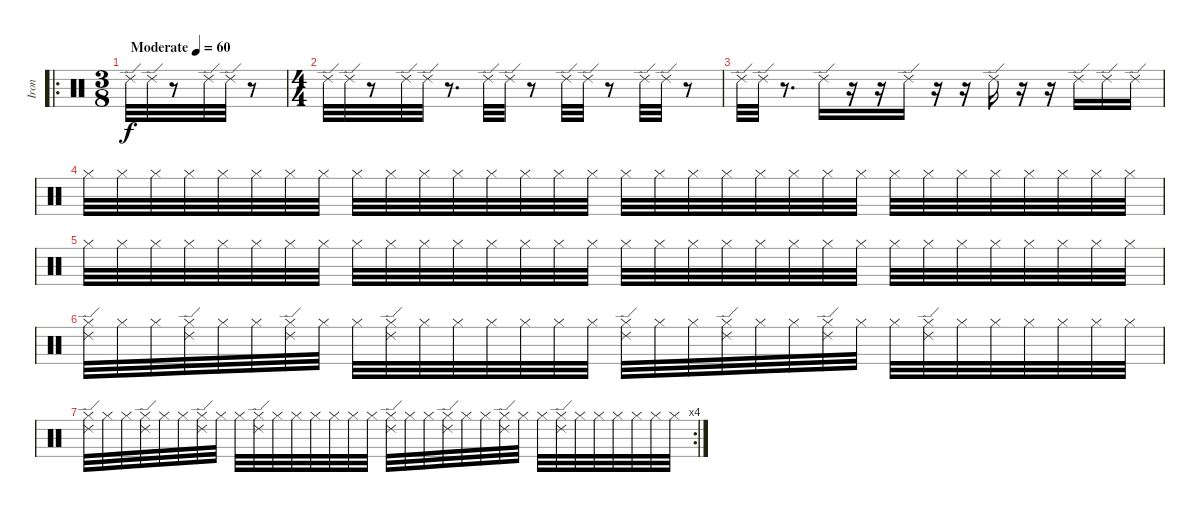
\track ("Iron" "Iron") {instrument percussion}
\staff
\articulation defaults
\ro
\ts (3 8)
\tempo (60 "Moderate")
\clef neutral
\ks c "Ride (edge) 2".32{dy f} "Ride (edge) 2".32
r.8 "Ride (edge) 2".32 "Ride (edge) 2".32 r.8 |
\ts (4 4)
"Ride (edge) 2".32 "Ride (edge) 2".32 r.8 "Ride (edge) 2".32 "Ride (edge) 2".32 r.8{d} "Ride (edge) 2".32 "Ride (edge) 2".32 r.8 "Ride (edge) 2".32 "Ride (edge) 2".32 r.8 "Ride (edge) 2".32 "Ride (edge) 2".32 r.8 |
"Ride (edge) 2".32 "Ride (edge) 2".32 r.8{d} "Ride (edge) 2".16 r.16 r.16 "Ride (edge) 2".16 r.16 r.16 "Ride (edge) 2".16 r.16 r.16 "Ride (edge) 2".16 "Ride (edge) 2".16 "Ride (edge) 2".16 |
"Hi-Hat (closed)".32 "Hi-Hat (closed)".32 "Hi-Hat (closed)".32 "Hi-Hat (closed)".32 "Hi-Hat (closed)".32 "Hi-Hat (closed)".32 "Hi-Hat (closed)".32 "Hi-Hat (closed)".32 "Hi-Hat (closed)".32 "Hi-Hat (closed)".32 "Hi-Hat (closed)".32 "Hi-Hat (closed)".32 "Hi-Hat (closed)".32 "Hi-Hat (closed)".32 "Hi-Hat (closed)".32 "Hi-Hat (closed)".32 "Hi-Hat (closed)".32 "Hi-Hat (closed)".32 "Hi-Hat (closed)".32 "Hi-Hat (closed)".32 "Hi-Hat (closed)".32 "Hi-Hat (closed)".32 "Hi-Hat (closed)".32 "Hi-Hat (closed)".32 "Hi-Hat (closed)".32 "Hi-Hat (closed)".32 "Hi-Hat (closed)".32 "Hi-Hat (closed)".32 "Hi-Hat (closed)".32 "Hi-Hat (closed)".32 "Hi-Hat (closed)".32 "Hi-Hat (closed)".32 |
"Hi-Hat (closed)".32 "Hi-Hat (closed)".32 "Hi-Hat (closed)".32 "Hi-Hat (closed)".32 "Hi-Hat (closed)".32 "Hi-Hat (closed)".32 "Hi-Hat (closed)".32 "Hi-Hat (closed)".32 "Hi-Hat (closed)".32 "Hi-Hat (closed)".32 "Hi-Hat (closed)".32 "Hi-Hat (closed)".32 "Hi-Hat (closed)".32 "Hi-Hat (closed)".32 "Hi-Hat (closed)".32 "Hi-Hat (closed)".32 "Hi-Hat (closed)".32 "Hi-Hat (closed)".32 "Hi-Hat (closed)".32 "Hi-Hat (closed)".32 "Hi-Hat (closed)".32 "Hi-Hat (closed)".32 "Hi-Hat (closed)".32 "Hi-Hat (closed)".32 "Hi-Hat (closed)".32 "Hi-Hat (closed)".32 "Hi-Hat (closed)".32 "Hi-Hat (closed)".32 "Hi-Hat (closed)".32 "Hi-Hat (closed)".32 "Hi-Hat (closed)".32 "Hi-Hat (closed)".32 |
("Ride (edge) 2" "Hi-Hat (closed)").32 "Hi-Hat (closed)".32 "Hi-Hat (closed)".32 ("Ride (edge) 2" "Hi-Hat (closed)").32 "Hi-Hat (closed)".32 "Hi-Hat (closed)".32 ("Ride (edge) 2" "Hi-Hat (closed)").32 "Hi-Hat (closed)".32 "Hi-Hat (closed)".32 ("Ride (edge) 2" "Hi-Hat (closed)").32 "Hi-Hat (closed)".32 "Hi-Hat (closed)".32 "Hi-Hat (closed)".32 "Hi-Hat (closed)".32 "Hi-Hat (closed)".32 "Hi-Hat (closed)".32 ("Ride (edge) 2" "Hi-Hat (closed)").32 "Hi-Hat (closed)".32 "Hi-Hat (closed)".32 ("Ride (edge) 2" "Hi-Hat (closed)").32 "Hi-Hat (closed)".32 "Hi-Hat (closed)".32 ("Ride (edge) 2" "Hi-Hat (closed)").32 "Hi-Hat (closed)".32 "Hi-Hat (closed)".32 ("Ride (edge) 2" "Hi-Hat (closed)").32 "Hi-Hat (closed)".32 "Hi-Hat (closed)".32 "Hi-Hat (closed)".32 "Hi-Hat (closed)".32 "Hi-Hat (closed)".32 "Hi-Hat (closed)".32 |
\rc 4
("Ride (edge) 2" "Hi-Hat (closed)").32 "Hi-Hat (closed)".32 "Hi-Hat (closed)".32 ("Ride (edge) 2" "Hi-Hat (closed)").32 "Hi-Hat (closed)".32 "Hi-Hat (closed)".32 ("Ride (edge) 2" "Hi-Hat (closed)").32 "Hi-Hat (closed)".32 "Hi-Hat (closed)".32 ("Ride (edge) 2" "Hi-Hat (closed)").32 "Hi-Hat (closed)".32 "Hi-Hat (closed)".32 "Hi-Hat (closed)".32 "Hi-Hat (closed)".32 "Hi-Hat (closed)".32 "Hi-Hat (closed)".32 ("Ride (edge) 2" "Hi-Hat (closed)").32 "Hi-Hat (closed)".32 "Hi-Hat (closed)".32 ("Ride (edge) 2" "Hi-Hat (closed)").32 "Hi-Hat (closed)".32 "Hi-Hat (closed)".32 ("Ride (edge) 2" "Hi-Hat (closed)").32 "Hi-Hat (closed)".32 "Hi-Hat (closed)".32 ("Ride (edge) 2" "Hi-Hat (closed)").32 "Hi-Hat (closed)".32 "Hi-Hat (closed)".32 "Hi-Hat (closed)".32 "Hi-Hat (closed)".32 "Hi-Hat (closed)".32 "Hi-Hat (closed)".32
